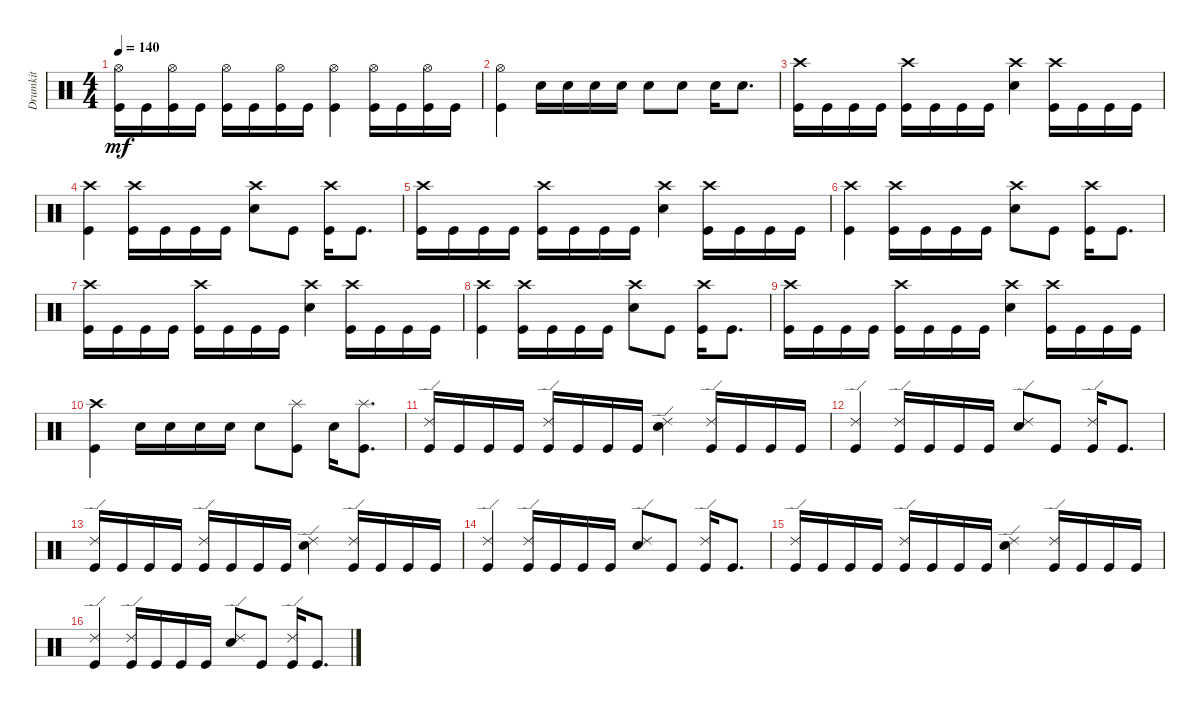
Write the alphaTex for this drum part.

\track ("Drumkit" "Drumkit") {instrument percussion}
\staff {score}
\articulation defaults
\ts (4 4)
\tempo 140
\clef neutral
\ks c
("Kick (hit)" "Hi-Hat (open)").16{dy mf} "Kick (hit)".16 ("Kick (hit)" "Hi-Hat (open)").16 "Kick (hit)".16 ("Kick (hit)" "Hi-Hat (open)").16 "Kick (hit)".16 ("Kick (hit)" "Hi-Hat (open)").16 "Kick (hit)".16 ("Kick (hit)" "Hi-Hat (open)").4 ("Kick (hit)" "Hi-Hat (open)").16 "Kick (hit)".16 ("Kick (hit)" "Hi-Hat (open)").16 "Kick (hit)".16 |
("Kick (hit)" "Hi-Hat (open)").4 "Snare (hit) 2".16 "Snare (hit) 2".16 "Snare (hit) 2".16 "Snare (hit) 2".16 "Snare (hit) 2".8 "Snare (hit) 2".8 "Snare (hit) 2".16 "Snare (hit) 2".8{d} |
("Kick (hit)" "Crash high (hit)").16 "Kick (hit)".16 "Kick (hit)".16 "Kick (hit)".16 ("Kick (hit)" "Crash high (hit)").16 "Kick (hit)".16 "Kick (hit)".16 "Kick (hit)".16 ("Snare (hit) 2" "Crash high (hit)").4 ("Kick (hit)" "Crash high (hit)").16 "Kick (hit)".16 "Kick (hit)".16 "Kick (hit)".16 |
("Kick (hit)" "Crash high (hit)").4 ("Kick (hit)" "Crash high (hit)").16 "Kick (hit)".16 "Kick (hit)".16 "Kick (hit)".16 ("Snare (hit) 2" "Crash high (hit)").8 "Kick (hit)".8 ("Kick (hit)" "Crash high (hit)").16 "Kick (hit)".8{d} |
("Kick (hit)" "Crash high (hit)").16 "Kick (hit)".16 "Kick (hit)".16 "Kick (hit)".16 ("Kick (hit)" "Crash high (hit)").16 "Kick (hit)".16 "Kick (hit)".16 "Kick (hit)".16 ("Snare (hit) 2" "Crash high (hit)").4 ("Kick (hit)" "Crash high (hit)").16 "Kick (hit)".16 "Kick (hit)".16 "Kick (hit)".16 |
("Kick (hit)" "Crash high (hit)").4 ("Kick (hit)" "Crash high (hit)").16 "Kick (hit)".16 "Kick (hit)".16 "Kick (hit)".16 ("Snare (hit) 2" "Crash high (hit)").8 "Kick (hit)".8 ("Kick (hit)" "Crash high (hit)").16 "Kick (hit)".8{d} |
("Kick (hit)" "Crash high (hit)").16 "Kick (hit)".16 "Kick (hit)".16 "Kick (hit)".16 ("Kick (hit)" "Crash high (hit)").16 "Kick (hit)".16 "Kick (hit)".16 "Kick (hit)".16 ("Snare (hit) 2" "Crash high (hit)").4 ("Kick (hit)" "Crash high (hit)").16 "Kick (hit)".16 "Kick (hit)".16 "Kick (hit)".16 |
("Kick (hit)" "Crash high (hit)").4 ("Kick (hit)" "Crash high (hit)").16 "Kick (hit)".16 "Kick (hit)".16 "Kick (hit)".16 ("Snare (hit) 2" "Crash high (hit)").8 "Kick (hit)".8 ("Kick (hit)" "Crash high (hit)").16 "Kick (hit)".8{d} |
("Kick (hit)" "Crash high (hit)").16 "Kick (hit)".16 "Kick (hit)".16 "Kick (hit)".16 ("Kick (hit)" "Crash high (hit)").16 "Kick (hit)".16 "Kick (hit)".16 "Kick (hit)".16 ("Snare (hit) 2" "Crash high (hit)").4 ("Kick (hit)" "Crash high (hit)").16 "Kick (hit)".16 "Kick (hit)".16 "Kick (hit)".16 |
("Kick (hit)" "Crash high (hit)").4 "Snare (hit) 2".16 "Snare (hit) 2".16 "Snare (hit) 2".16 "Snare (hit) 2".16 "Snare (hit) 2".8 ("Kick (hit)" "Splash (hit)").8 "Snare (hit) 2".16 ("Kick (hit)" "Splash (hit)").8{d} |
("Kick (hit)" "Ride (edge) 2").16 "Kick (hit)".16 "Kick (hit)".16 "Kick (hit)".16 ("Kick (hit)" "Ride (edge) 2").16 "Kick (hit)".16 "Kick (hit)".16 "Kick (hit)".16 ("Snare (hit) 2" "Ride (edge) 2").4 ("Kick (hit)" "Ride (edge) 2").16 "Kick (hit)".16 "Kick (hit)".16 "Kick (hit)".16 |
("Kick (hit)" "Ride (edge) 2").4 ("Kick (hit)" "Ride (edge) 2").16 "Kick (hit)".16 "Kick (hit)".16 "Kick (hit)".16 ("Snare (hit) 2" "Ride (edge) 2").8 "Kick (hit)".8 ("Kick (hit)" "Ride (edge) 2").16 "Kick (hit)".8{d} |
("Kick (hit)" "Ride (edge) 2").16 "Kick (hit)".16 "Kick (hit)".16 "Kick (hit)".16 ("Kick (hit)" "Ride (edge) 2").16 "Kick (hit)".16 "Kick (hit)".16 "Kick (hit)".16 ("Snare (hit) 2" "Ride (edge) 2").4 ("Kick (hit)" "Ride (edge) 2").16 "Kick (hit)".16 "Kick (hit)".16 "Kick (hit)".16 |
("Kick (hit)" "Ride (edge) 2").4 ("Kick (hit)" "Ride (edge) 2").16 "Kick (hit)".16 "Kick (hit)".16 "Kick (hit)".16 ("Snare (hit) 2" "Ride (edge) 2").8 "Kick (hit)".8 ("Kick (hit)" "Ride (edge) 2").16 "Kick (hit)".8{d} |
("Kick (hit)" "Ride (edge) 2").16 "Kick (hit)".16 "Kick (hit)".16 "Kick (hit)".16 ("Kick (hit)" "Ride (edge) 2").16 "Kick (hit)".16 "Kick (hit)".16 "Kick (hit)".16 ("Snare (hit) 2" "Ride (edge) 2").4 ("Kick (hit)" "Ride (edge) 2").16 "Kick (hit)".16 "Kick (hit)".16 "Kick (hit)".16 |
("Kick (hit)" "Ride (edge) 2").4 ("Kick (hit)" "Ride (edge) 2").16 "Kick (hit)".16 "Kick (hit)".16 "Kick (hit)".16 ("Snare (hit) 2" "Ride (edge) 2").8 "Kick (hit)".8 ("Kick (hit)" "Ride (edge) 2").16 "Kick (hit)".8{d}
